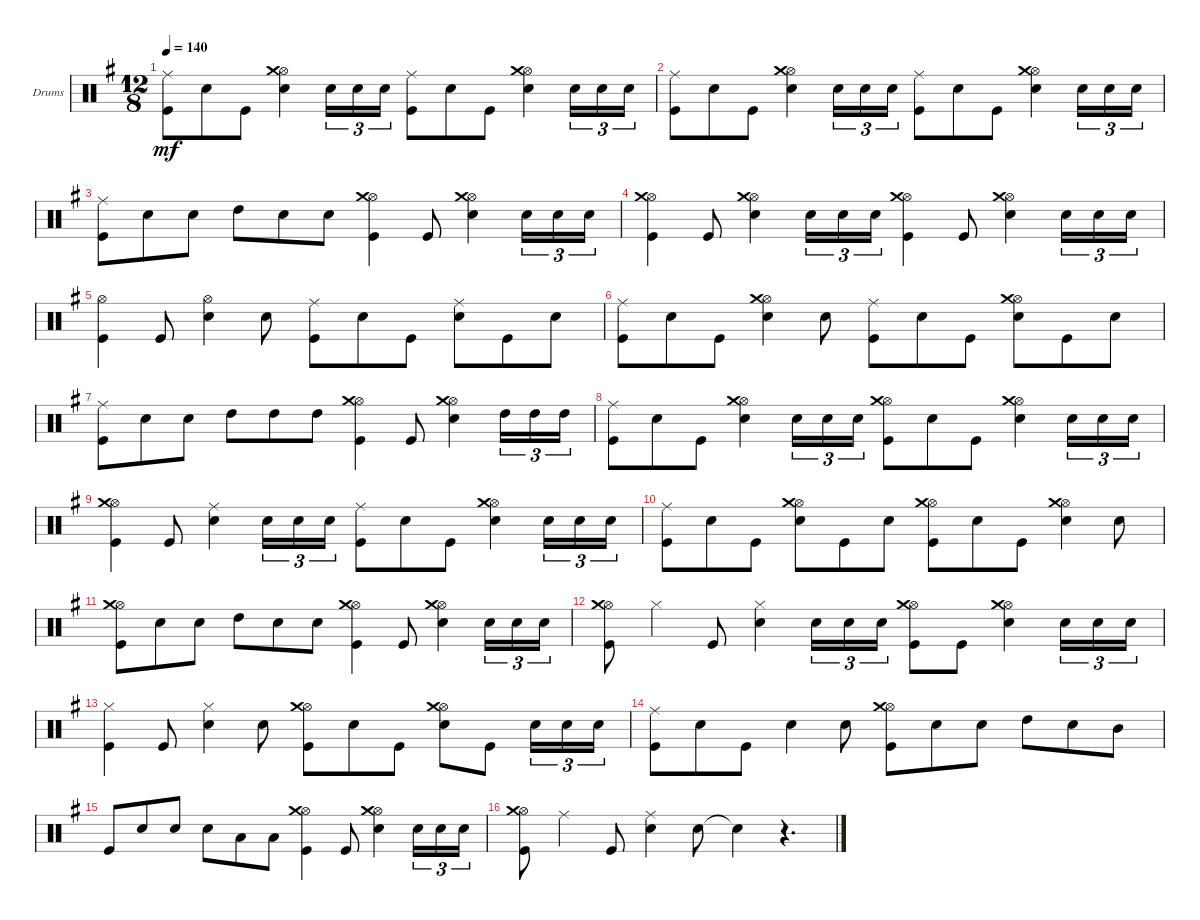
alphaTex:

\defaultSystemsLayout 4
\bracketExtendMode groupsimilarinstruments
\firstSystemTrackNameOrientation horizontal
\otherSystemsTrackNameOrientation horizontal
\track ("Drumkit" "Drums") {instrument percussion}
\staff {score}
\articulation defaults
\ts (12 8)
\tempo 140
\clef neutral
\ks g
("Ride (middle)" "Kick (hit)").8{dy mf} "Snare (hit) 2".8 "Kick (hit)".8 ("Snare (hit) 2" "Hi-Hat (open)" "Crash medium (hit)").4 "Snare (hit) 2".16{tu (3 2)} "Snare (hit) 2".16{tu (3 2)} "Snare (hit) 2".16{tu (3 2)} ("Ride (middle)" "Kick (hit)").8 "Snare (hit) 2".8 "Kick (hit)".8 ("Snare (hit) 2" "Hi-Hat (open)" "Crash medium (hit)").4 "Snare (hit) 2".16{tu (3 2)} "Snare (hit) 2".16{tu (3 2)} "Snare (hit) 2".16{tu (3 2)} |
("Ride (middle)" "Kick (hit)").8 "Snare (hit) 2".8 "Kick (hit)".8 ("Snare (hit) 2" "Hi-Hat (open)" "Crash medium (hit)").4 "Snare (hit) 2".16{tu (3 2)} "Snare (hit) 2".16{tu (3 2)} "Snare (hit) 2".16{tu (3 2)} ("Ride (middle)" "Kick (hit)").8 "Snare (hit) 2".8 "Kick (hit)".8 ("Snare (hit) 2" "Hi-Hat (open)" "Crash medium (hit)").4 "Snare (hit) 2".16{tu (3 2)} "Snare (hit) 2".16{tu (3 2)} "Snare (hit) 2".16{tu (3 2)} |
("Ride (middle)" "Kick (hit)").8 "Snare (hit) 2".8 "Snare (hit) 2".8 "High Tom (hit)".8 "Snare (hit) 2".8 "Snare (hit) 2".8 ("Hi-Hat (open)" "Kick (hit)" "Crash medium (hit)").4 "Kick (hit)".8 ("Snare (hit) 2" "Hi-Hat (open)" "Crash medium (hit)").4 "Snare (hit) 2".16{tu (3 2)} "Snare (hit) 2".16{tu (3 2)} "Snare (hit) 2".16{tu (3 2)} |
("Hi-Hat (open)" "Crash medium (hit)" "Kick (hit)").4 "Kick (hit)".8 ("Snare (hit) 2" "Hi-Hat (open)" "Crash medium (hit)").4 "Snare (hit) 2".16{tu (3 2)} "Snare (hit) 2".16{tu (3 2)} "Snare (hit) 2".16{tu (3 2)} ("Hi-Hat (open)" "Kick (hit)" "Crash medium (hit)").4 "Kick (hit)".8 ("Snare (hit) 2" "Hi-Hat (open)" "Crash medium (hit)").4 "Snare (hit) 2".16{tu (3 2)} "Snare (hit) 2".16{tu (3 2)} "Snare (hit) 2".16{tu (3 2)} |
("Hi-Hat (open)" "Kick (hit)").4 "Kick (hit)".8 ("Snare (hit) 2" "Hi-Hat (open)").4 "Snare (hit) 2".8 ("Ride (middle)" "Kick (hit)").8 "Snare (hit) 2".8 "Kick (hit)".8 ("Snare (hit) 2" "Ride (middle)").8 "Kick (hit)".8 "Snare (hit) 2".8 |
("Ride (middle)" "Kick (hit)").8 "Snare (hit) 2".8 "Kick (hit)".8 ("Snare (hit) 2" "Hi-Hat (open)" "Crash medium (hit)").4 "Snare (hit) 2".8 ("Ride (middle)" "Kick (hit)").8 "Snare (hit) 2".8 "Kick (hit)".8 ("Snare (hit) 2" "Hi-Hat (open)" "Crash medium (hit)").8 "Kick (hit)".8 "Snare (hit) 2".8 |
("Ride (middle)" "Kick (hit)").8 "Snare (hit) 2".8 "Snare (hit) 2".8 "High Tom (hit)".8 "High Tom (hit)".8 "High Tom (hit)".8 ("Hi-Hat (open)" "Kick (hit)" "Crash medium (hit)").4 "Kick (hit)".8 ("Snare (hit) 2" "Hi-Hat (open)" "Crash medium (hit)").4 "High Tom (hit)".16{tu (3 2)} "High Tom (hit)".16{tu (3 2)} "High Tom (hit)".16{tu (3 2)} |
("Ride (middle)" "Kick (hit)").8 "Snare (hit) 2".8 "Kick (hit)".8 ("Snare (hit) 2" "Hi-Hat (open)" "Crash medium (hit)").4 "Snare (hit) 2".16{tu (3 2)} "Snare (hit) 2".16{tu (3 2)} "Snare (hit) 2".16{tu (3 2)} ("Hi-Hat (open)" "Crash medium (hit)" "Kick (hit)").8 "Snare (hit) 2".8 "Kick (hit)".8 ("Snare (hit) 2" "Hi-Hat (open)" "Crash medium (hit)").4 "Snare (hit) 2".16{tu (3 2)} "Snare (hit) 2".16{tu (3 2)} "Snare (hit) 2".16{tu (3 2)} |
("Hi-Hat (open)" "Crash medium (hit)" "Kick (hit)").4 "Kick (hit)".8 ("Snare (hit) 2" "Ride (middle)").4 "Snare (hit) 2".16{tu (3 2)} "Snare (hit) 2".16{tu (3 2)} "Snare (hit) 2".16{tu (3 2)} ("Ride (middle)" "Kick (hit)").8 "Snare (hit) 2".8 "Kick (hit)".8 ("Snare (hit) 2" "Hi-Hat (open)" "Crash medium (hit)").4 "Snare (hit) 2".16{tu (3 2)} "Snare (hit) 2".16{tu (3 2)} "Snare (hit) 2".16{tu (3 2)} |
("Ride (middle)" "Kick (hit)").8 "Snare (hit) 2".8 "Kick (hit)".8 ("Snare (hit) 2" "Hi-Hat (open)" "Crash medium (hit)").8 "Kick (hit)".8 "Snare (hit) 2".8 ("Hi-Hat (open)" "Crash medium (hit)" "Kick (hit)").8 "Snare (hit) 2".8 "Kick (hit)".8 ("Snare (hit) 2" "Hi-Hat (open)" "Crash medium (hit)").4 "Snare (hit) 2".8 |
("Hi-Hat (open)" "Crash medium (hit)" "Kick (hit)").8 "Snare (hit) 2".8 "Snare (hit) 2".8 "High Tom (hit)".8 "Snare (hit) 2".8 "Snare (hit) 2".8 ("Hi-Hat (open)" "Crash medium (hit)" "Kick (hit)").4 "Kick (hit)".8 ("Snare (hit) 2" "Hi-Hat (open)" "Crash medium (hit)").4 "Snare (hit) 2".16{tu (3 2)} "Snare (hit) 2".16{tu (3 2)} "Snare (hit) 2".16{tu (3 2)} |
("Hi-Hat (open)" "Crash medium (hit)" "Kick (hit)").8 "Hi-Hat (closed)".4 "Kick (hit)".8 ("Snare (hit) 2" "Hi-Hat (closed)").4 "Snare (hit) 2".16{tu (3 2)} "Snare (hit) 2".16{tu (3 2)} "Snare (hit) 2".16{tu (3 2)} ("Hi-Hat (open)" "Kick (hit)" "Crash medium (hit)").8 "Kick (hit)".8 ("Snare (hit) 2" "Hi-Hat (open)" "Crash medium (hit)").4 "Snare (hit) 2".16{tu (3 2)} "Snare (hit) 2".16{tu (3 2)} "Snare (hit) 2".16{tu (3 2)} |
("Hi-Hat (closed)" "Kick (hit)").4 "Kick (hit)".8 ("Snare (hit) 2" "Hi-Hat (closed)").4 "Snare (hit) 2".8 ("Hi-Hat (open)" "Crash medium (hit)" "Kick (hit)").8 "Snare (hit) 2".8 "Kick (hit)".8 ("Snare (hit) 2" "Hi-Hat (open)" "Crash medium (hit)").8 "Kick (hit)".8 "Snare (hit) 2".16{tu (3 2)} "Snare (hit) 2".16{tu (3 2)} "Snare (hit) 2".16{tu (3 2)} |
("Ride (middle)" "Kick (hit)").8 "Snare (hit) 2".8 "Kick (hit)".8 "Snare (hit) 2".4 "Snare (hit) 2".8 ("Hi-Hat (open)" "Crash medium (hit)" "Kick (hit)").8 "Snare (hit) 2".8 "Snare (hit) 2".8 "High Tom (hit)".8 "Snare (hit) 2".8 "Mid Tom (hit)".8 |
"Kick (hit)".8 "Snare (hit) 2".8 "Snare (hit) 2".8 "Snare (hit) 2".8 "Low Tom (hit)".8 "Low Tom (hit)".8 ("Kick (hit)" "Hi-Hat (open)" "Crash medium (hit)").4 "Kick (hit)".8 ("Snare (hit) 2" "Hi-Hat (open)" "Crash medium (hit)").4 "Snare (hit) 2".16{tu (3 2)} "Snare (hit) 2".16{tu (3 2)} "Snare (hit) 2".16{tu (3 2)} |
("Hi-Hat (open)" "Crash medium (hit)" "Kick (hit)").8 "Ride (middle)".4 "Kick (hit)".8 ("Ride (middle)" "Snare (hit) 2").4 "Snare (hit) 2".8 "Snare (hit) 2"{t}.4 r.4{d}
